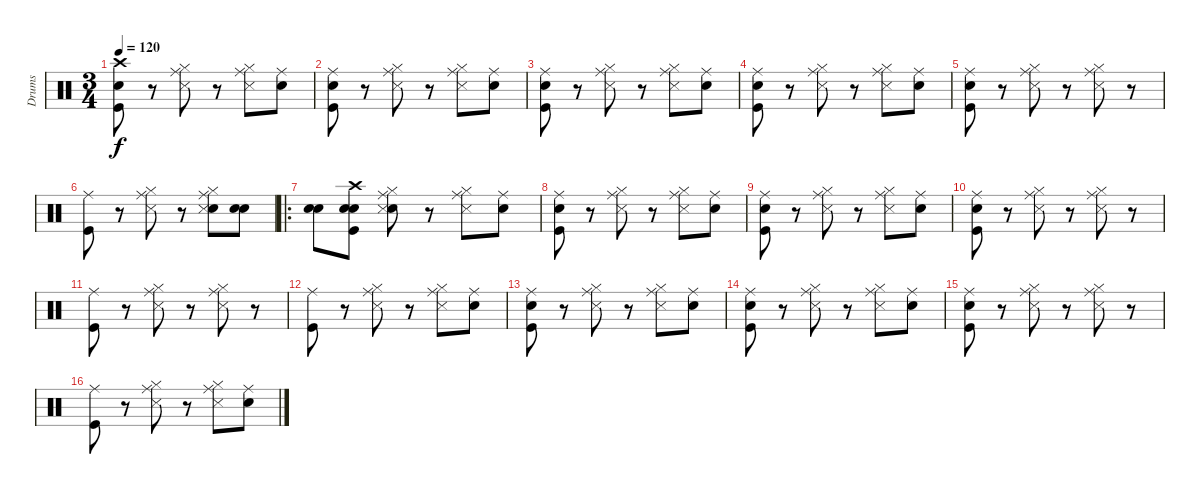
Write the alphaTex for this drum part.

\track ("Drums " "Drums ") {instrument percussion}
\staff {score}
\articulation defaults
\ts (3 4)
\tempo 120
\clef neutral
\ks c
("Kick (hit)" "Snare (hit) 2" "Crash high (hit)").8{dy f} r.8 ("Hi-Hat (closed)" "Snare (side stick) 3" "Ride (middle)").8 r.8 ("Hi-Hat (closed)" "Snare (side stick) 3" "Ride (middle)").8 ("Snare (hit)" "Ride (middle)").8 |
("Snare (hit)" "Kick (hit)" "Ride (middle)").8 r.8 ("Hi-Hat (closed)" "Snare (side stick) 3" "Ride (middle)").8 r.8 ("Hi-Hat (closed)" "Snare (side stick) 3" "Ride (middle)").8 ("Snare (hit)" "Ride (middle)").8 |
("Snare (hit)" "Kick (hit)" "Ride (middle)").8 r.8 ("Hi-Hat (closed)" "Snare (side stick) 3" "Ride (middle)").8 r.8 ("Hi-Hat (closed)" "Snare (side stick) 3" "Ride (middle)").8 ("Snare (hit)" "Ride (middle)").8 |
("Snare (hit)" "Kick (hit)" "Ride (middle)").8 r.8 ("Hi-Hat (closed)" "Snare (side stick) 3" "Ride (middle)").8 r.8 ("Hi-Hat (closed)" "Snare (side stick) 3" "Ride (middle)").8 ("Snare (hit)" "Ride (middle)").8 |
("Snare (hit)" "Kick (hit)" "Ride (middle)").8 r.8 ("Hi-Hat (closed)" "Snare (side stick) 3" "Ride (middle)").8 r.8 ("Hi-Hat (closed)" "Snare (side stick) 3" "Ride (middle)").8 r.8 |
("Kick (hit)" "Ride (middle)").8 r.8 ("Hi-Hat (closed)" "Snare (side stick) 3" "Ride (middle)").8 r.8 ("Snare (hit) 2" "Hi-Hat (closed)" "Snare (side stick) 3" "Ride (middle)").8 ("Snare (hit)" "Snare (hit) 2").8 |
\ro
("Snare (hit)" "Snare (hit) 2").8 ("Snare (hit)" "Kick (hit)" "Snare (hit) 2" "Crash high (hit)").8 ("Snare (hit)" "Hi-Hat (closed)" "Snare (side stick) 3" "Ride (middle)").8 r.8 ("Hi-Hat (closed)" "Snare (side stick) 3" "Ride (middle)").8 ("Snare (hit)" "Ride (middle)").8 |
("Snare (hit)" "Kick (hit)" "Ride (middle)").8 r.8 ("Hi-Hat (closed)" "Snare (side stick) 3" "Ride (middle)").8 r.8 ("Hi-Hat (closed)" "Snare (side stick) 3" "Ride (middle)").8 ("Snare (hit)" "Ride (middle)").8 |
("Snare (hit)" "Kick (hit)" "Ride (middle)").8 r.8 ("Hi-Hat (closed)" "Snare (side stick) 3" "Ride (middle)").8 r.8 ("Hi-Hat (closed)" "Snare (side stick) 3" "Ride (middle)").8 ("Snare (hit)" "Ride (middle)").8 |
("Snare (hit)" "Kick (hit)" "Ride (middle)").8 r.8 ("Hi-Hat (closed)" "Snare (side stick) 3" "Ride (middle)").8 r.8 ("Hi-Hat (closed)" "Snare (side stick) 3" "Ride (middle)").8 r.8 |
("Kick (hit)" "Ride (middle)").8 r.8 ("Hi-Hat (closed)" "Snare (side stick) 3" "Ride (middle)").8 r.8 ("Hi-Hat (closed)" "Snare (side stick) 3" "Ride (middle)").8 r.8 |
("Kick (hit)" "Ride (middle)").8 r.8 ("Hi-Hat (closed)" "Snare (side stick) 3" "Ride (middle)").8 r.8 ("Hi-Hat (closed)" "Snare (side stick) 3" "Ride (middle)").8 ("Snare (hit)" "Ride (middle)").8 |
("Snare (hit)" "Kick (hit)" "Ride (middle)").8 r.8 ("Hi-Hat (closed)" "Snare (side stick) 3" "Ride (middle)").8 r.8 ("Hi-Hat (closed)" "Snare (side stick) 3" "Ride (middle)").8 ("Snare (hit)" "Ride (middle)").8 |
("Snare (hit)" "Kick (hit)" "Ride (middle)").8 r.8 ("Hi-Hat (closed)" "Snare (side stick) 3" "Ride (middle)").8 r.8 ("Hi-Hat (closed)" "Snare (side stick) 3" "Ride (middle)").8 ("Snare (hit)" "Ride (middle)").8 |
("Snare (hit)" "Kick (hit)" "Ride (middle)").8 r.8 ("Hi-Hat (closed)" "Snare (side stick) 3" "Ride (middle)").8 r.8 ("Hi-Hat (closed)" "Snare (side stick) 3" "Ride (middle)").8 r.8 |
("Kick (hit)" "Ride (middle)").8 r.8 ("Hi-Hat (closed)" "Snare (side stick) 3" "Ride (middle)").8 r.8 ("Hi-Hat (closed)" "Snare (side stick) 3" "Ride (middle)").8 ("Snare (hit)" "Ride (middle)").8
